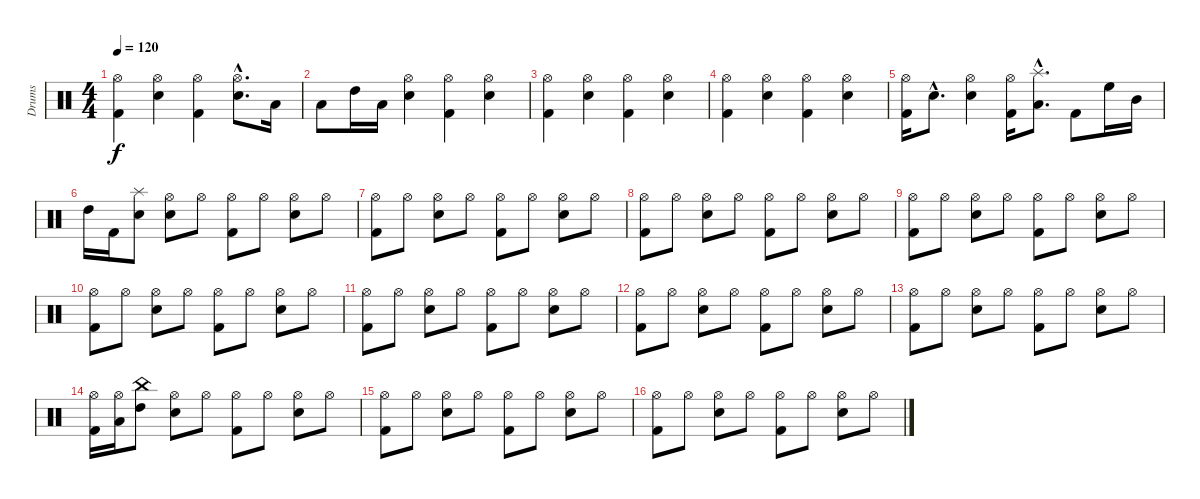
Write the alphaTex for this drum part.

\track ("Drums" "Drums") {instrument percussion}
\staff {score}
\articulation defaults
\ts (4 4)
\tempo 120
\clef neutral
\ks c
("Kick (hit) 2" "Hi-Hat (open)").4{dy f} ("Snare (hit) 2" "Hi-Hat (open)").4 ("Kick (hit) 2" "Hi-Hat (open)").4 ("Snare (hit) 2"{hac} "Hi-Hat (open)"{hac}).8{d} "Low Tom (hit)".16 |
"Low Tom (hit)".8 "High Tom (hit)".16 "Low Tom (hit)".16 ("Snare (hit) 2" "Hi-Hat (open)").4 ("Kick (hit) 2" "Hi-Hat (open)").4 ("Snare (hit) 2" "Hi-Hat (open)").4 |
("Kick (hit) 2" "Hi-Hat (open)").4 ("Snare (hit) 2" "Hi-Hat (open)").4 ("Kick (hit) 2" "Hi-Hat (open)").4 ("Snare (hit) 2" "Hi-Hat (open)").4 |
("Kick (hit) 2" "Hi-Hat (open)").4 ("Snare (hit) 2" "Hi-Hat (open)").4 ("Kick (hit) 2" "Hi-Hat (open)").4 ("Snare (hit) 2" "Hi-Hat (open)").4 |
("Kick (hit) 2" "Hi-Hat (open)").16 "Snare (hit) 2"{hac}.8{d} ("Electric Snare (hit)" "Hi-Hat (open)").4 ("Kick (hit) 2" "Hi-Hat (open)").16 ("Low Tom (hit)"{hac} "Splash (hit)"{hac}).8{d} "Kick (hit) 2".8 "High Floor Tom (hit)".16 "Mid Tom (hit)".16 |
"High Tom (hit)".16 "Kick (hit) 2".16 ("Snare (hit) 2" "Splash (hit)").8 ("Snare (hit) 2" "Hi-Hat (open)").8 "Hi-Hat (open)".8 ("Kick (hit) 2" "Hi-Hat (open)").8 "Hi-Hat (open)".8 ("Snare (hit) 2" "Hi-Hat (open)").8 "Hi-Hat (open)".8 |
("Kick (hit) 2" "Hi-Hat (open)").8 "Hi-Hat (open)".8 ("Snare (hit) 2" "Hi-Hat (open)").8 "Hi-Hat (open)".8 ("Kick (hit) 2" "Hi-Hat (open)").8 "Hi-Hat (open)".8 ("Snare (hit) 2" "Hi-Hat (open)").8 "Hi-Hat (open)".8 |
("Kick (hit) 2" "Hi-Hat (open)").8 "Hi-Hat (open)".8 ("Snare (hit) 2" "Hi-Hat (open)").8 "Hi-Hat (open)".8 ("Kick (hit) 2" "Hi-Hat (open)").8 "Hi-Hat (open)".8 ("Snare (hit) 2" "Hi-Hat (open)").8 "Hi-Hat (open)".8 |
("Kick (hit) 2" "Hi-Hat (open)").8 "Hi-Hat (open)".8 ("Snare (hit) 2" "Hi-Hat (open)").8 "Hi-Hat (open)".8 ("Kick (hit) 2" "Hi-Hat (open)").8 "Hi-Hat (open)".8 ("Snare (hit) 2" "Hi-Hat (open)").8 "Hi-Hat (open)".8 |
("Kick (hit) 2" "Hi-Hat (open)").8 "Hi-Hat (open)".8 ("Snare (hit) 2" "Hi-Hat (open)").8 "Hi-Hat (open)".8 ("Kick (hit) 2" "Hi-Hat (open)").8 "Hi-Hat (open)".8 ("Snare (hit) 2" "Hi-Hat (open)").8 "Hi-Hat (open)".8 |
("Kick (hit) 2" "Hi-Hat (open)").8 "Hi-Hat (open)".8 ("Snare (hit) 2" "Hi-Hat (open)").8 "Hi-Hat (open)".8 ("Kick (hit) 2" "Hi-Hat (open)").8 "Hi-Hat (open)".8 ("Snare (hit) 2" "Hi-Hat (open)").8 "Hi-Hat (open)".8 |
("Kick (hit) 2" "Hi-Hat (open)").8 "Hi-Hat (open)".8 ("Snare (hit) 2" "Hi-Hat (open)").8 "Hi-Hat (open)".8 ("Kick (hit) 2" "Hi-Hat (open)").8 "Hi-Hat (open)".8 ("Snare (hit) 2" "Hi-Hat (open)").8 "Hi-Hat (open)".8 |
("Kick (hit) 2" "Hi-Hat (open)").8 "Hi-Hat (open)".8 ("Snare (hit) 2" "Hi-Hat (open)").8 "Hi-Hat (open)".8 ("Kick (hit) 2" "Hi-Hat (open)").8 "Hi-Hat (open)".8 ("Snare (hit) 2" "Hi-Hat (open)").8 "Hi-Hat (open)".8 |
("Kick (hit) 2" "Hi-Hat (open)").16 ("Low Tom (hit)" "Hi-Hat (open)").16 ("High Tom (hit)" "China (hit)").8 ("Snare (hit) 2" "Hi-Hat (open)").8 "Hi-Hat (open)".8 ("Kick (hit) 2" "Hi-Hat (open)").8 "Hi-Hat (open)".8 ("Snare (hit) 2" "Hi-Hat (open)").8 "Hi-Hat (open)".8 |
("Kick (hit) 2" "Hi-Hat (open)").8 "Hi-Hat (open)".8 ("Snare (hit) 2" "Hi-Hat (open)").8 "Hi-Hat (open)".8 ("Kick (hit) 2" "Hi-Hat (open)").8 "Hi-Hat (open)".8 ("Snare (hit) 2" "Hi-Hat (open)").8 "Hi-Hat (open)".8 |
("Kick (hit) 2" "Hi-Hat (open)").8 "Hi-Hat (open)".8 ("Snare (hit) 2" "Hi-Hat (open)").8 "Hi-Hat (open)".8 ("Kick (hit) 2" "Hi-Hat (open)").8 "Hi-Hat (open)".8 ("Snare (hit) 2" "Hi-Hat (open)").8 "Hi-Hat (open)".8
